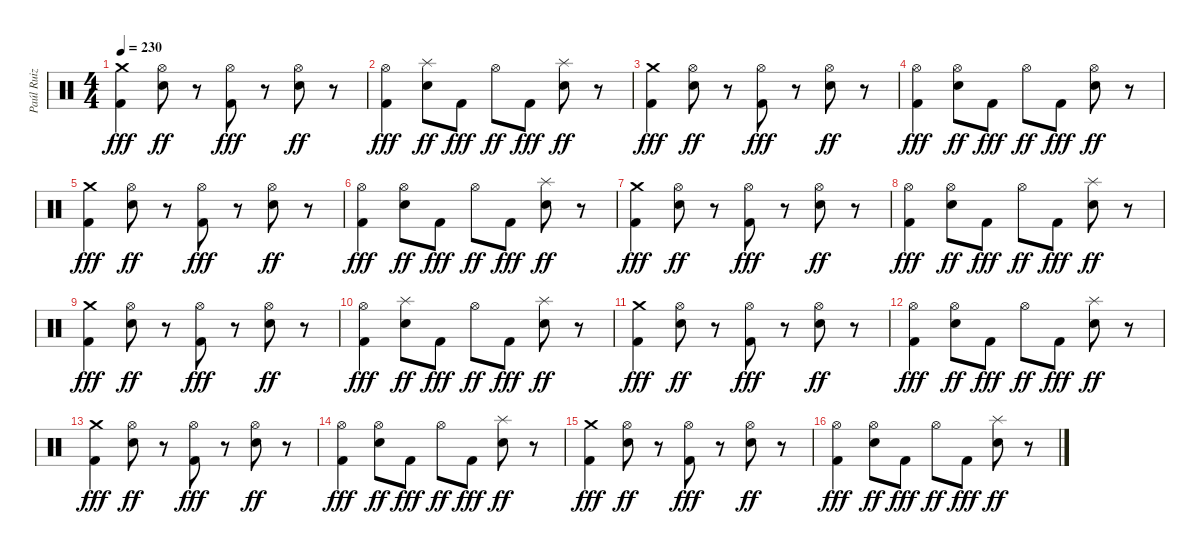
\track ("Paúl Ruiz" "Paúl Ruiz") {instrument percussion}
\staff {score}
\articulation defaults
\ts (4 4)
\tempo 230
\clef neutral
\ks c
("Crash medium (hit)" "Kick (hit) 2").4{dy fff} ("Hi-Hat (open)" "Snare (hit) 2").8{dy ff} r.8 ("Hi-Hat (open)" "Kick (hit) 2").8{dy fff} r.8 ("Hi-Hat (open)" "Snare (hit) 2").8{dy ff} r.8 |
("Hi-Hat (open)" "Kick (hit) 2").4{dy fff} ("Splash (hit)" "Snare (hit) 2").8{dy ff} "Kick (hit) 2".8{dy fff} "Hi-Hat (open)".8{dy ff} "Kick (hit) 2".8{dy fff} ("Splash (hit)" "Snare (hit) 2").8{dy ff} r.8 |
("Crash medium (hit)" "Kick (hit) 2").4{dy fff} ("Hi-Hat (open)" "Snare (hit) 2").8{dy ff} r.8 ("Hi-Hat (open)" "Kick (hit) 2").8{dy fff} r.8 ("Hi-Hat (open)" "Snare (hit) 2").8{dy ff} r.8 |
("Hi-Hat (open)" "Kick (hit) 2").4{dy fff} ("Hi-Hat (open)" "Snare (hit) 2").8{dy ff} "Kick (hit) 2".8{dy fff} "Hi-Hat (open)".8{dy ff} "Kick (hit) 2".8{dy fff} ("Hi-Hat (open)" "Snare (hit) 2").8{dy ff} r.8 |
("Crash medium (hit)" "Kick (hit) 2").4{dy fff} ("Hi-Hat (open)" "Snare (hit) 2").8{dy ff} r.8 ("Hi-Hat (open)" "Kick (hit) 2").8{dy fff} r.8 ("Hi-Hat (open)" "Snare (hit) 2").8{dy ff} r.8 |
("Hi-Hat (open)" "Kick (hit) 2").4{dy fff} ("Hi-Hat (open)" "Snare (hit) 2").8{dy ff} "Kick (hit) 2".8{dy fff} "Hi-Hat (open)".8{dy ff} "Kick (hit) 2".8{dy fff} ("Splash (hit)" "Snare (hit) 2").8{dy ff} r.8 |
("Crash medium (hit)" "Kick (hit) 2").4{dy fff} ("Hi-Hat (open)" "Snare (hit) 2").8{dy ff} r.8 ("Hi-Hat (open)" "Kick (hit) 2").8{dy fff} r.8 ("Hi-Hat (open)" "Snare (hit) 2").8{dy ff} r.8 |
("Hi-Hat (open)" "Kick (hit) 2").4{dy fff} ("Hi-Hat (open)" "Snare (hit) 2").8{dy ff} "Kick (hit) 2".8{dy fff} "Hi-Hat (open)".8{dy ff} "Kick (hit) 2".8{dy fff} ("Splash (hit)" "Snare (hit) 2").8{dy ff} r.8 |
("Crash medium (hit)" "Kick (hit) 2").4{dy fff} ("Hi-Hat (open)" "Snare (hit) 2").8{dy ff} r.8 ("Hi-Hat (open)" "Kick (hit) 2").8{dy fff} r.8 ("Hi-Hat (open)" "Snare (hit) 2").8{dy ff} r.8 |
("Hi-Hat (open)" "Kick (hit) 2").4{dy fff} ("Splash (hit)" "Snare (hit) 2").8{dy ff} "Kick (hit) 2".8{dy fff} "Hi-Hat (open)".8{dy ff} "Kick (hit) 2".8{dy fff} ("Splash (hit)" "Snare (hit) 2").8{dy ff} r.8 |
("Crash medium (hit)" "Kick (hit) 2").4{dy fff} ("Hi-Hat (open)" "Snare (hit) 2").8{dy ff} r.8 ("Hi-Hat (open)" "Kick (hit) 2").8{dy fff} r.8 ("Hi-Hat (open)" "Snare (hit) 2").8{dy ff} r.8 |
("Hi-Hat (open)" "Kick (hit) 2").4{dy fff} ("Hi-Hat (open)" "Snare (hit) 2").8{dy ff} "Kick (hit) 2".8{dy fff} "Hi-Hat (open)".8{dy ff} "Kick (hit) 2".8{dy fff} ("Splash (hit)" "Snare (hit) 2").8{dy ff} r.8 |
("Crash medium (hit)" "Kick (hit) 2").4{dy fff} ("Hi-Hat (open)" "Snare (hit) 2").8{dy ff} r.8 ("Hi-Hat (open)" "Kick (hit) 2").8{dy fff} r.8 ("Hi-Hat (open)" "Snare (hit) 2").8{dy ff} r.8 |
("Hi-Hat (open)" "Kick (hit) 2").4{dy fff} ("Hi-Hat (open)" "Snare (hit) 2").8{dy ff} "Kick (hit) 2".8{dy fff} "Hi-Hat (open)".8{dy ff} "Kick (hit) 2".8{dy fff} ("Splash (hit)" "Snare (hit) 2").8{dy ff} r.8 |
("Crash medium (hit)" "Kick (hit) 2").4{dy fff} ("Hi-Hat (open)" "Snare (hit) 2").8{dy ff} r.8 ("Hi-Hat (open)" "Kick (hit) 2").8{dy fff} r.8 ("Hi-Hat (open)" "Snare (hit) 2").8{dy ff} r.8 |
("Hi-Hat (open)" "Kick (hit) 2").4{dy fff} ("Hi-Hat (open)" "Snare (hit) 2").8{dy ff} "Kick (hit) 2".8{dy fff} "Hi-Hat (open)".8{dy ff} "Kick (hit) 2".8{dy fff} ("Splash (hit)" "Snare (hit) 2").8{dy ff} r.8
